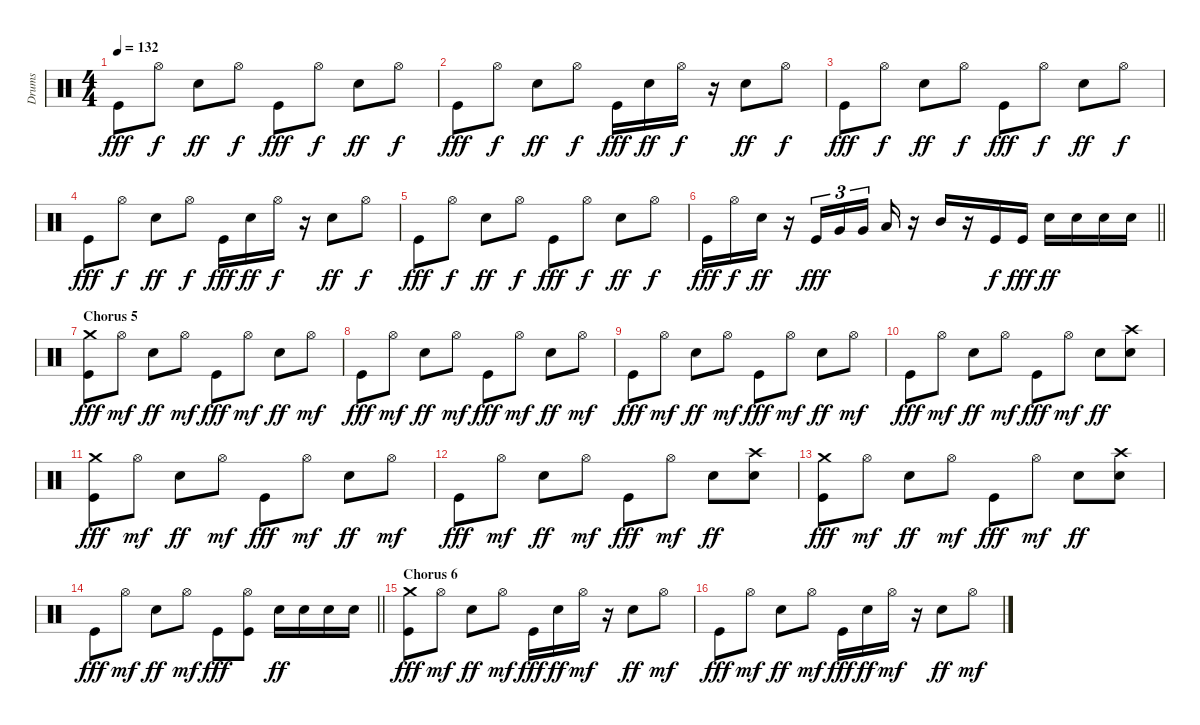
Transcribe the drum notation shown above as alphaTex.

\track ("Drums" "Drums") {instrument percussion}
\staff {score}
\articulation defaults
\ts (4 4)
\tempo 132
\clef neutral
\ks c "Kick (hit)".8{dy fff} "Hi-Hat (open)".8{dy f} "Snare (hit) 2".8{dy ff} "Hi-Hat (open)".8{dy f} "Kick (hit)".8{dy fff} "Hi-Hat (open)".8{dy f} "Snare (hit) 2".8{dy ff} "Hi-Hat (open)".8{dy f}
|
"Kick (hit)".8{dy fff} "Hi-Hat (open)".8{dy f} "Snare (hit) 2".8{dy ff} "Hi-Hat (open)".8{dy f} "Kick (hit)".16{dy fff} "Snare (hit) 2".16{dy ff} "Hi-Hat (open)".16{dy f} r.16 "Snare (hit) 2".8{dy ff} "Hi-Hat (open)".8{dy f} |
"Kick (hit)".8{dy fff} "Hi-Hat (open)".8{dy f} "Snare (hit) 2".8{dy ff} "Hi-Hat (open)".8{dy f} "Kick (hit)".8{dy fff} "Hi-Hat (open)".8{dy f} "Snare (hit) 2".8{dy ff} "Hi-Hat (open)".8{dy f} |
"Kick (hit)".8{dy fff} "Hi-Hat (open)".8{dy f} "Snare (hit) 2".8{dy ff} "Hi-Hat (open)".8{dy f} "Kick (hit)".16{dy fff} "Snare (hit) 2".16{dy ff} "Hi-Hat (open)".16{dy f} r.16 "Snare (hit) 2".8{dy ff} "Hi-Hat (open)".8{dy f} |
"Kick (hit)".8{dy fff} "Hi-Hat (open)".8{dy f} "Snare (hit) 2".8{dy ff} "Hi-Hat (open)".8{dy f} "Kick (hit)".8{dy fff} "Hi-Hat (open)".8{dy f} "Snare (hit) 2".8{dy ff} "Hi-Hat (open)".8{dy f} |
\barLineRight lightlight "Kick (hit)".16{dy fff} "Hi-Hat (open)".16{dy f} "Snare (hit) 2".16{dy ff}
r.16 "Kick (hit)".16{tu (3 2) dy fff} "Very Low Tom (hit)".16{tu (3 2)} "Very Low Tom (hit)".16{tu (3 2) beam splitsecondary} "Low Tom (hit)".16 r.16 "Mid Tom (hit)".16 r.16 "Kick (hit)".16{dy f} "Kick (hit)".16{dy fff} "Snare (hit) 2".16{dy ff} "Snare (hit) 2".16 "Snare (hit) 2".16 "Snare (hit) 2".16 |
\section ("" "Chorus 5")
("Crash medium (hit)" "Kick (hit)").8{dy fff} "Hi-Hat (open)".8{dy mf} "Snare (hit) 2".8{dy ff} "Hi-Hat (open)".8{dy mf} "Kick (hit)".8{dy fff} "Hi-Hat (open)".8{dy mf} "Snare (hit) 2".8{dy ff} "Hi-Hat (open)".8{dy mf} |
"Kick (hit)".8{dy fff} "Hi-Hat (open)".8{dy mf} "Snare (hit) 2".8{dy ff} "Hi-Hat (open)".8{dy mf} "Kick (hit)".8{dy fff} "Hi-Hat (open)".8{dy mf} "Snare (hit) 2".8{dy ff} "Hi-Hat (open)".8{dy mf} |
"Kick (hit)".8{dy fff} "Hi-Hat (open)".8{dy mf} "Snare (hit) 2".8{dy ff} "Hi-Hat (open)".8{dy mf} "Kick (hit)".8{dy fff} "Hi-Hat (open)".8{dy mf} "Snare (hit) 2".8{dy ff} "Hi-Hat (open)".8{dy mf} |
"Kick (hit)".8{dy fff} "Hi-Hat (open)".8{dy mf} "Snare (hit) 2".8{dy ff} "Hi-Hat (open)".8{dy mf} "Kick (hit)".8{dy fff} "Hi-Hat (open)".8{dy mf} "Snare (hit) 2".8{dy ff} ("Crash high (hit)" "Snare (hit) 2").8 |
("Crash medium (hit)" "Kick (hit)").8{dy fff} "Hi-Hat (open)".8{dy mf} "Snare (hit) 2".8{dy ff} "Hi-Hat (open)".8{dy mf} "Kick (hit)".8{dy fff} "Hi-Hat (open)".8{dy mf} "Snare (hit) 2".8{dy ff} "Hi-Hat (open)".8{dy mf} |
"Kick (hit)".8{dy fff} "Hi-Hat (open)".8{dy mf} "Snare (hit) 2".8{dy ff} "Hi-Hat (open)".8{dy mf} "Kick (hit)".8{dy fff} "Hi-Hat (open)".8{dy mf} "Snare (hit) 2".8{dy ff} ("Crash high (hit)" "Snare (hit) 2").8 |
("Crash medium (hit)" "Kick (hit)").8{dy fff} "Hi-Hat (open)".8{dy mf} "Snare (hit) 2".8{dy ff} "Hi-Hat (open)".8{dy mf} "Kick (hit)".8{dy fff} "Hi-Hat (open)".8{dy mf} "Snare (hit) 2".8{dy ff} ("Crash high (hit)" "Snare (hit) 2").8 |
\barLineRight lightlight "Kick (hit)".8{dy fff} "Hi-Hat (open)".8{dy mf} "Snare (hit) 2".8{dy ff} "Hi-Hat (open)".8{dy mf} "Kick (hit)".8{dy fff}
("Hi-Hat (open)" "Kick (hit)").8 "Snare (hit) 2".16{dy ff} "Snare (hit) 2".16 "Snare (hit) 2".16 "Snare (hit) 2".16 |
\section ("" "Chorus 6")
("Crash medium (hit)" "Kick (hit)").8{dy fff} "Hi-Hat (open)".8{dy mf} "Snare (hit) 2".8{dy ff} "Hi-Hat (open)".8{dy mf} "Kick (hit)".16{dy fff} "Snare (hit) 2".16{dy ff} "Hi-Hat (open)".16{dy mf} r.16 "Snare (hit) 2".8{dy ff} "Hi-Hat (open)".8{dy mf} |
"Kick (hit)".8{dy fff} "Hi-Hat (open)".8{dy mf} "Snare (hit) 2".8{dy ff} "Hi-Hat (open)".8{dy mf} "Kick (hit)".16{dy fff} "Snare (hit) 2".16{dy ff} "Hi-Hat (open)".16{dy mf} r.16 "Snare (hit) 2".8{dy ff} "Hi-Hat (open)".8{dy mf}
